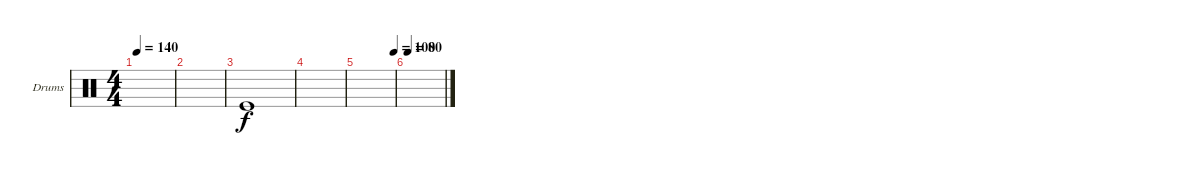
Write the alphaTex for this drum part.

\defaultSystemsLayout 4
\bracketExtendMode groupsimilarinstruments
\firstSystemTrackNameOrientation horizontal
\otherSystemsTrackNameOrientation horizontal
\track ("Helders" "Drums") {instrument percussion}
\staff {score}
\articulation defaults
\ts (4 4)
\tempo 140
\clef neutral
\ks c
|
|
"Kick (hit)".1 |
|
\tempo (100 0.99375)
|
\tempo 80
